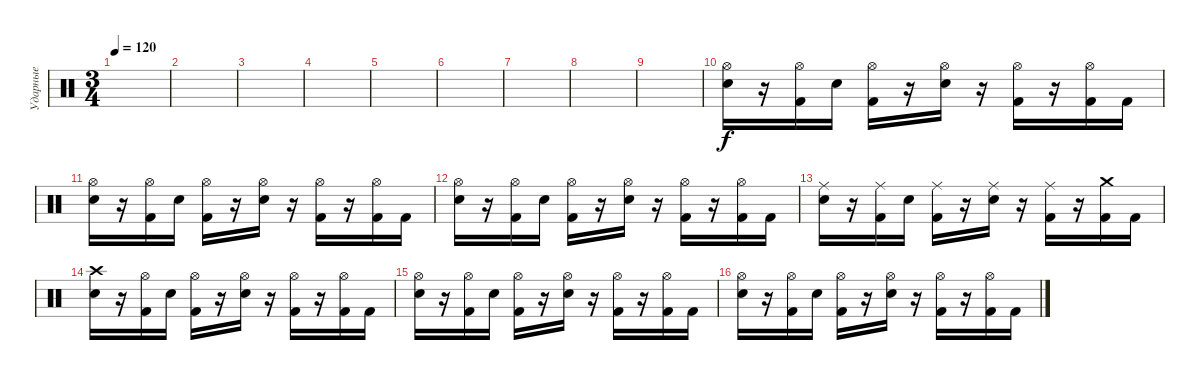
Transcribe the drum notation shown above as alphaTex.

\track ("Ударные" "Ударные") {instrument percussion}
\staff {score}
\articulation defaults
\ts (3 4)
\tempo 120
\clef neutral
\ks c
|
|
|
|
|
|
|
|
|
("Hi-Hat (open)" "Electric Snare (hit)").16 r.16 ("Hi-Hat (open)" "Kick (hit) 2").16 "Electric Snare (hit)".16 ("Hi-Hat (open)" "Kick (hit) 2").16 r.16 ("Hi-Hat (open)" "Electric Snare (hit)").16 r.16 ("Hi-Hat (open)" "Kick (hit) 2").16 r.16 ("Hi-Hat (open)" "Kick (hit) 2").16 "Kick (hit) 2".16 |
("Hi-Hat (open)" "Electric Snare (hit)").16 r.16 ("Hi-Hat (open)" "Kick (hit) 2").16 "Electric Snare (hit)".16 ("Hi-Hat (open)" "Kick (hit) 2").16 r.16 ("Hi-Hat (open)" "Electric Snare (hit)").16 r.16 ("Hi-Hat (open)" "Kick (hit) 2").16 r.16 ("Hi-Hat (open)" "Kick (hit) 2").16 "Kick (hit) 2".16 |
("Hi-Hat (open)" "Electric Snare (hit)").16 r.16 ("Hi-Hat (open)" "Kick (hit) 2").16 "Electric Snare (hit)".16 ("Hi-Hat (open)" "Kick (hit) 2").16 r.16 ("Hi-Hat (open)" "Electric Snare (hit)").16 r.16 ("Hi-Hat (open)" "Kick (hit) 2").16 r.16 ("Hi-Hat (open)" "Kick (hit) 2").16 "Kick (hit) 2".16 |
("Ride (middle)" "Electric Snare (hit)").16 r.16 ("Ride (middle)" "Kick (hit) 2").16 "Electric Snare (hit)".16 ("Ride (middle)" "Kick (hit) 2").16 r.16 ("Ride (middle)" "Electric Snare (hit)").16 r.16 ("Ride (middle)" "Kick (hit) 2").16 r.16 ("Crash medium (hit)" "Kick (hit) 2").16 "Kick (hit) 2".16 |
("Crash high (hit)" "Electric Snare (hit)").16 r.16 ("Hi-Hat (open)" "Kick (hit) 2").16 "Electric Snare (hit)".16 ("Hi-Hat (open)" "Kick (hit) 2").16 r.16 ("Hi-Hat (open)" "Electric Snare (hit)").16 r.16 ("Hi-Hat (open)" "Kick (hit) 2").16 r.16 ("Hi-Hat (open)" "Kick (hit) 2").16 "Kick (hit) 2".16 |
("Hi-Hat (open)" "Electric Snare (hit)").16 r.16 ("Hi-Hat (open)" "Kick (hit) 2").16 "Electric Snare (hit)".16 ("Hi-Hat (open)" "Kick (hit) 2").16 r.16 ("Hi-Hat (open)" "Electric Snare (hit)").16 r.16 ("Hi-Hat (open)" "Kick (hit) 2").16 r.16 ("Hi-Hat (open)" "Kick (hit) 2").16 "Kick (hit) 2".16 |
("Hi-Hat (open)" "Electric Snare (hit)").16 r.16 ("Hi-Hat (open)" "Kick (hit) 2").16 "Electric Snare (hit)".16 ("Hi-Hat (open)" "Kick (hit) 2").16 r.16 ("Hi-Hat (open)" "Electric Snare (hit)").16 r.16 ("Hi-Hat (open)" "Kick (hit) 2").16 r.16 ("Hi-Hat (open)" "Kick (hit) 2").16 "Kick (hit) 2".16
